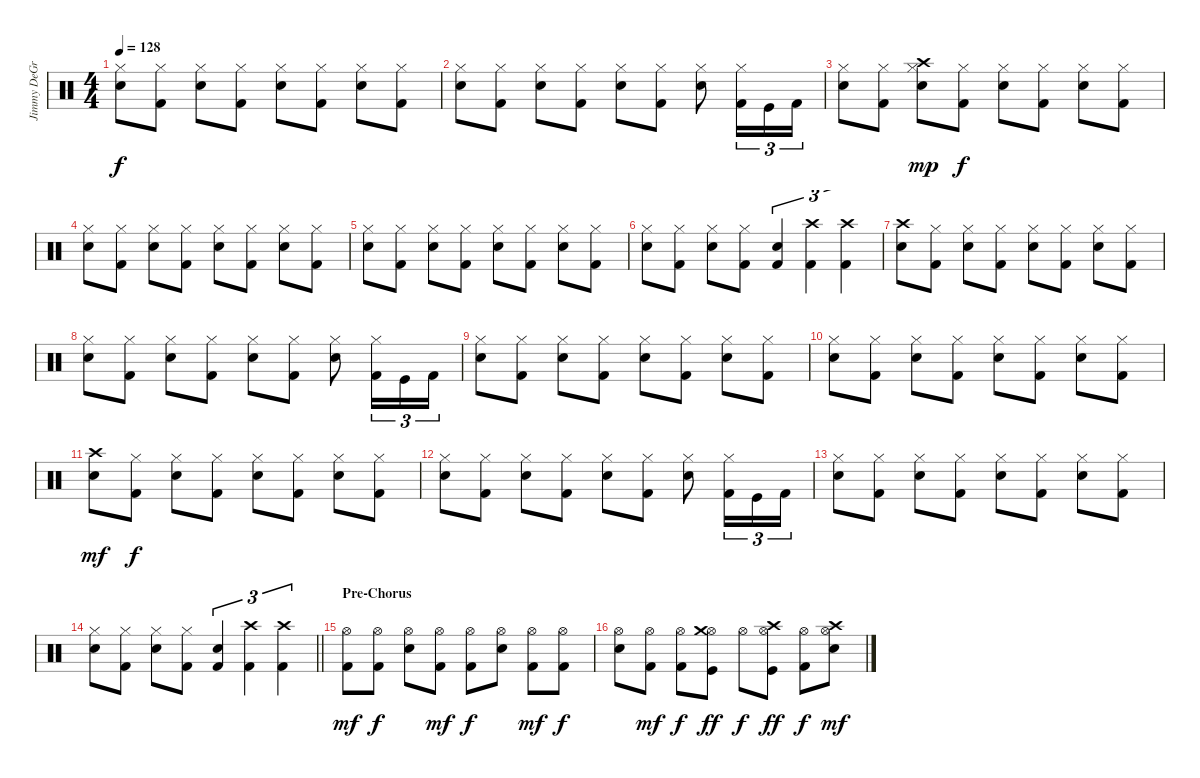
\track ("Jimmy DeGrasso" "Jimmy DeGr") {instrument percussion}
\staff {score}
\articulation defaults
\ts (4 4)
\tempo 128
\clef neutral
\ks c
("Hi-Hat (closed)" "Snare (hit) 2").8{dy f} ("Hi-Hat (closed)" "Kick (hit) 2").8 ("Hi-Hat (closed)" "Snare (hit) 2").8 ("Hi-Hat (closed)" "Kick (hit) 2").8 ("Hi-Hat (closed)" "Snare (hit) 2").8 ("Hi-Hat (closed)" "Kick (hit) 2").8 ("Hi-Hat (closed)" "Snare (hit) 2").8 ("Hi-Hat (closed)" "Kick (hit) 2").8 |
("Hi-Hat (closed)" "Snare (hit) 2").8 ("Hi-Hat (closed)" "Kick (hit) 2").8 ("Hi-Hat (closed)" "Snare (hit) 2").8 ("Hi-Hat (closed)" "Kick (hit) 2").8 ("Hi-Hat (closed)" "Snare (hit) 2").8 ("Hi-Hat (closed)" "Kick (hit) 2").8 ("Hi-Hat (closed)" "Snare (hit) 2").8 ("Hi-Hat (closed)" "Kick (hit) 2").16{tu (3 2)} "Kick (hit)".16{tu (3 2)} "Kick (hit) 2".16{tu (3 2)} |
("Hi-Hat (closed)" "Snare (hit) 2").8 ("Hi-Hat (closed)" "Kick (hit) 2").8 ("Hi-Hat (closed)" "Crash high (hit)" "Snare (hit) 2").8{dy mp} ("Hi-Hat (closed)" "Kick (hit) 2").8{dy f} ("Hi-Hat (closed)" "Snare (hit) 2").8 ("Hi-Hat (closed)" "Kick (hit) 2").8 ("Hi-Hat (closed)" "Snare (hit) 2").8 ("Hi-Hat (closed)" "Kick (hit) 2").8 |
("Hi-Hat (closed)" "Snare (hit) 2").8 ("Hi-Hat (closed)" "Kick (hit) 2").8 ("Hi-Hat (closed)" "Snare (hit) 2").8 ("Hi-Hat (closed)" "Kick (hit) 2").8 ("Hi-Hat (closed)" "Snare (hit) 2").8 ("Hi-Hat (closed)" "Kick (hit) 2").8 ("Hi-Hat (closed)" "Snare (hit) 2").8 ("Hi-Hat (closed)" "Kick (hit) 2").8 |
("Hi-Hat (closed)" "Snare (hit) 2").8 ("Hi-Hat (closed)" "Kick (hit) 2").8 ("Hi-Hat (closed)" "Snare (hit) 2").8 ("Hi-Hat (closed)" "Kick (hit) 2").8 ("Hi-Hat (closed)" "Snare (hit) 2").8 ("Hi-Hat (closed)" "Kick (hit) 2").8 ("Hi-Hat (closed)" "Snare (hit) 2").8 ("Hi-Hat (closed)" "Kick (hit) 2").8 |
("Hi-Hat (closed)" "Snare (hit) 2").8 ("Hi-Hat (closed)" "Kick (hit) 2").8 ("Hi-Hat (closed)" "Snare (hit) 2").8 ("Hi-Hat (closed)" "Kick (hit) 2").8 ("Snare (hit) 2" "Kick (hit) 2").4{tu (3 2)} ("Crash high (hit)" "Kick (hit) 2").4{tu (3 2)} ("Crash high (hit)" "Kick (hit) 2").4{tu (3 2)} |
("Crash high (hit)" "Snare (hit) 2").8 ("Hi-Hat (closed)" "Kick (hit) 2").8 ("Hi-Hat (closed)" "Snare (hit) 2").8 ("Hi-Hat (closed)" "Kick (hit) 2").8 ("Hi-Hat (closed)" "Snare (hit) 2").8 ("Hi-Hat (closed)" "Kick (hit) 2").8 ("Hi-Hat (closed)" "Snare (hit) 2").8 ("Hi-Hat (closed)" "Kick (hit) 2").8 |
("Hi-Hat (closed)" "Snare (hit) 2").8 ("Hi-Hat (closed)" "Kick (hit) 2").8 ("Hi-Hat (closed)" "Snare (hit) 2").8 ("Hi-Hat (closed)" "Kick (hit) 2").8 ("Hi-Hat (closed)" "Snare (hit) 2").8 ("Hi-Hat (closed)" "Kick (hit) 2").8 ("Hi-Hat (closed)" "Snare (hit) 2").8 ("Hi-Hat (closed)" "Kick (hit) 2").16{tu (3 2)} "Kick (hit)".16{tu (3 2)} "Kick (hit) 2".16{tu (3 2)} |
("Hi-Hat (closed)" "Snare (hit) 2").8 ("Hi-Hat (closed)" "Kick (hit) 2").8 ("Hi-Hat (closed)" "Snare (hit) 2").8 ("Hi-Hat (closed)" "Kick (hit) 2").8 ("Hi-Hat (closed)" "Snare (hit) 2").8 ("Hi-Hat (closed)" "Kick (hit) 2").8 ("Hi-Hat (closed)" "Snare (hit) 2").8 ("Hi-Hat (closed)" "Kick (hit) 2").8 |
("Hi-Hat (closed)" "Snare (hit) 2").8 ("Hi-Hat (closed)" "Kick (hit) 2").8 ("Hi-Hat (closed)" "Snare (hit) 2").8 ("Hi-Hat (closed)" "Kick (hit) 2").8 ("Hi-Hat (closed)" "Snare (hit) 2").8 ("Hi-Hat (closed)" "Kick (hit) 2").8 ("Hi-Hat (closed)" "Snare (hit) 2").8 ("Hi-Hat (closed)" "Kick (hit) 2").8 |
("Crash high (hit)" "Snare (hit) 2").8{dy mf} ("Hi-Hat (closed)" "Kick (hit) 2").8{dy f} ("Hi-Hat (closed)" "Snare (hit) 2").8 ("Hi-Hat (closed)" "Kick (hit) 2").8 ("Hi-Hat (closed)" "Snare (hit) 2").8 ("Hi-Hat (closed)" "Kick (hit) 2").8 ("Hi-Hat (closed)" "Snare (hit) 2").8 ("Hi-Hat (closed)" "Kick (hit) 2").8 |
("Hi-Hat (closed)" "Snare (hit) 2").8 ("Hi-Hat (closed)" "Kick (hit) 2").8 ("Hi-Hat (closed)" "Snare (hit) 2").8 ("Hi-Hat (closed)" "Kick (hit) 2").8 ("Hi-Hat (closed)" "Snare (hit) 2").8 ("Hi-Hat (closed)" "Kick (hit) 2").8 ("Hi-Hat (closed)" "Snare (hit) 2").8 ("Hi-Hat (closed)" "Kick (hit) 2").16{tu (3 2)} "Kick (hit)".16{tu (3 2)} "Kick (hit) 2".16{tu (3 2)} |
("Hi-Hat (closed)" "Snare (hit) 2").8 ("Hi-Hat (closed)" "Kick (hit) 2").8 ("Hi-Hat (closed)" "Snare (hit) 2").8 ("Hi-Hat (closed)" "Kick (hit) 2").8 ("Hi-Hat (closed)" "Snare (hit) 2").8 ("Hi-Hat (closed)" "Kick (hit) 2").8 ("Hi-Hat (closed)" "Snare (hit) 2").8 ("Hi-Hat (closed)" "Kick (hit) 2").8 |
\barLineRight lightlight
("Hi-Hat (closed)" "Snare (hit) 2").8 ("Hi-Hat (closed)" "Kick (hit) 2").8 ("Hi-Hat (closed)" "Snare (hit) 2").8 ("Hi-Hat (closed)" "Kick (hit) 2").8 ("Snare (hit) 2" "Kick (hit) 2").4{tu (3 2)} ("Crash high (hit)" "Kick (hit) 2").4{tu (3 2)} ("Crash high (hit)" "Kick (hit) 2").4{tu (3 2)} |
\section ("" "Pre-Chorus")
("Hi-Hat (open)" "Kick (hit) 2").8{dy mf} ("Hi-Hat (open)" "Kick (hit) 2").8{dy f} ("Hi-Hat (open)" "Snare (hit) 2").8 ("Hi-Hat (open)" "Kick (hit) 2").8{dy mf} ("Hi-Hat (open)" "Kick (hit) 2").8{dy f} ("Hi-Hat (open)" "Snare (hit) 2").8 ("Hi-Hat (open)" "Kick (hit) 2").8{dy mf} ("Hi-Hat (open)" "Kick (hit) 2").8{dy f} |
("Hi-Hat (open)" "Snare (hit) 2").8 ("Hi-Hat (open)" "Kick (hit) 2").8{dy mf} ("Hi-Hat (open)" "Kick (hit) 2").8{dy f} ("Hi-Hat (open)" "Crash medium (hit)" "Kick (hit)").8{dy ff} "Hi-Hat (open)".8{dy f} ("Hi-Hat (open)" "Crash high (hit)" "Kick (hit)").8{dy ff} ("Hi-Hat (open)" "Kick (hit) 2").8{dy f} ("Hi-Hat (open)" "Crash high (hit)" "Snare (hit) 2").8{dy mf}
